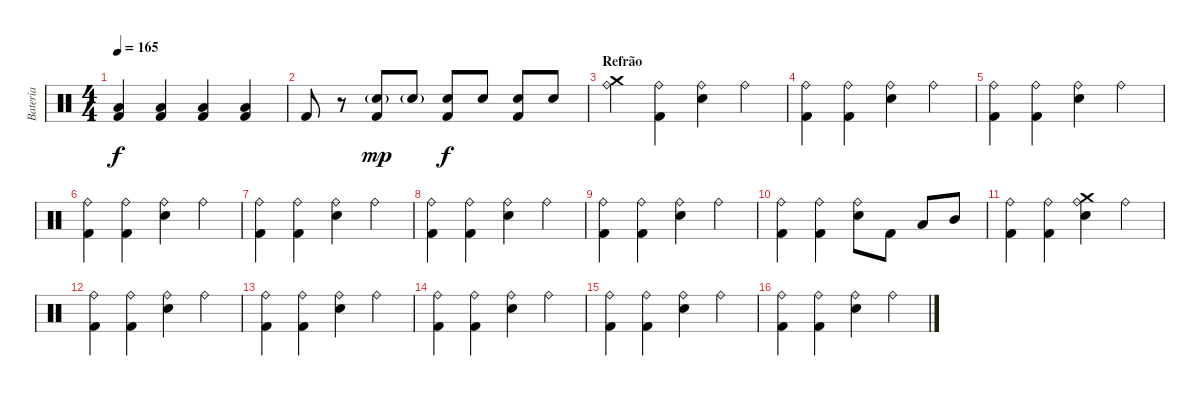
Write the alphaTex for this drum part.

\track ("Bateria" "Bateria") {instrument percussion}
\staff {score}
\articulation defaults
\ts (4 4)
\tempo 165
\clef neutral
\ks c
("Low Tom (hit)" "Kick (hit) 2").4{dy f} ("Low Tom (hit)" "Kick (hit) 2").4 ("Low Tom (hit)" "Kick (hit) 2").4 ("Low Tom (hit)" "Kick (hit) 2").4 |
"Kick (hit) 2".8 r.8 ("Electric Snare (hit)"{g} "Kick (hit) 2").8{dy mp} "Electric Snare (hit)"{g}.8 ("Electric Snare (hit)" "Kick (hit) 2").8{dy f} "Electric Snare (hit)".8 ("Electric Snare (hit)" "Kick (hit) 2").8 "Electric Snare (hit)".8 |
\section ("" "Refrão")
("Crash medium (hit)" "Ride (bell)").4 ("Ride (bell)" "Kick (hit) 2").4 ("Ride (bell)" "Electric Snare (hit)").4 "Ride (bell)".4 |
("Ride (bell)" "Kick (hit) 2").4 ("Ride (bell)" "Kick (hit) 2").4 ("Ride (bell)" "Electric Snare (hit)").4 "Ride (bell)".4 |
("Ride (bell)" "Kick (hit) 2").4 ("Ride (bell)" "Kick (hit) 2").4 ("Ride (bell)" "Electric Snare (hit)").4 "Ride (bell)".4 |
("Ride (bell)" "Kick (hit) 2").4 ("Ride (bell)" "Kick (hit) 2").4 ("Ride (bell)" "Electric Snare (hit)").4 "Ride (bell)".4 |
("Ride (bell)" "Kick (hit) 2").4 ("Ride (bell)" "Kick (hit) 2").4 ("Ride (bell)" "Electric Snare (hit)").4 "Ride (bell)".4 |
("Ride (bell)" "Kick (hit) 2").4 ("Ride (bell)" "Kick (hit) 2").4 ("Ride (bell)" "Electric Snare (hit)").4 "Ride (bell)".4 |
("Ride (bell)" "Kick (hit) 2").4 ("Ride (bell)" "Kick (hit) 2").4 ("Ride (bell)" "Electric Snare (hit)").4 "Ride (bell)".4 |
("Ride (bell)" "Kick (hit) 2").4 ("Ride (bell)" "Kick (hit) 2").4 ("Ride (bell)" "Electric Snare (hit)").8 "Kick (hit) 2".8 "Low Tom (hit)".8 "Mid Tom (hit)".8 |
("Ride (bell)" "Kick (hit) 2").4 ("Ride (bell)" "Kick (hit) 2").4 ("Crash medium (hit)" "Ride (bell)" "Electric Snare (hit)").4 "Ride (bell)".4 |
("Ride (bell)" "Kick (hit) 2").4 ("Ride (bell)" "Kick (hit) 2").4 ("Ride (bell)" "Electric Snare (hit)").4 "Ride (bell)".4 |
("Ride (bell)" "Kick (hit) 2").4 ("Ride (bell)" "Kick (hit) 2").4 ("Ride (bell)" "Electric Snare (hit)").4 "Ride (bell)".4 |
("Ride (bell)" "Kick (hit) 2").4 ("Ride (bell)" "Kick (hit) 2").4 ("Ride (bell)" "Electric Snare (hit)").4 "Ride (bell)".4 |
("Ride (bell)" "Kick (hit) 2").4 ("Ride (bell)" "Kick (hit) 2").4 ("Ride (bell)" "Electric Snare (hit)").4 "Ride (bell)".4 |
("Ride (bell)" "Kick (hit) 2").4 ("Ride (bell)" "Kick (hit) 2").4 ("Ride (bell)" "Electric Snare (hit)").4 "Ride (bell)".4
